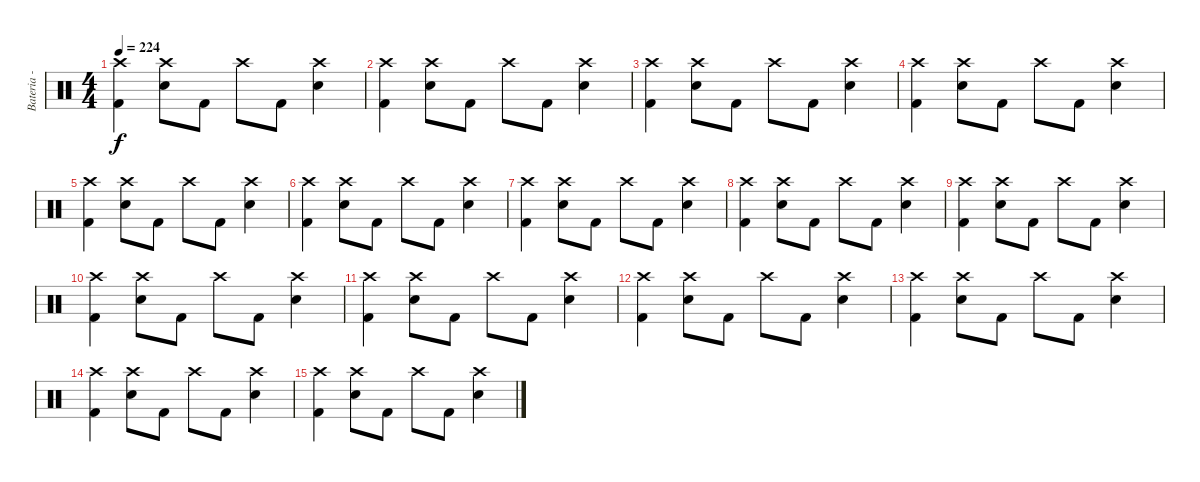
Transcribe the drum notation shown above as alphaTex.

\track ("Bateria - Larzon" "Bateria - ") {instrument percussion}
\staff {score}
\articulation defaults
\ts (4 4)
\tempo 224
\clef neutral
\ks c
("Kick (hit) 2" "Crash high (hit)").4{dy f} ("Electric Snare (hit)" "Crash high (hit)").8 "Kick (hit) 2".8 "Crash high (hit)".8 "Kick (hit) 2".8 ("Electric Snare (hit)" "Crash high (hit)").4 |
("Kick (hit) 2" "Crash high (hit)").4 ("Electric Snare (hit)" "Crash high (hit)").8 "Kick (hit) 2".8 "Crash high (hit)".8 "Kick (hit) 2".8 ("Electric Snare (hit)" "Crash high (hit)").4 |
("Kick (hit) 2" "Crash high (hit)").4 ("Electric Snare (hit)" "Crash high (hit)").8 "Kick (hit) 2".8 "Crash high (hit)".8 "Kick (hit) 2".8 ("Electric Snare (hit)" "Crash high (hit)").4 |
("Kick (hit) 2" "Crash high (hit)").4 ("Electric Snare (hit)" "Crash high (hit)").8 "Kick (hit) 2".8 "Crash high (hit)".8 "Kick (hit) 2".8 ("Electric Snare (hit)" "Crash high (hit)").4 |
("Kick (hit) 2" "Crash high (hit)").4 ("Electric Snare (hit)" "Crash high (hit)").8 "Kick (hit) 2".8 "Crash high (hit)".8 "Kick (hit) 2".8 ("Electric Snare (hit)" "Crash high (hit)").4 |
("Kick (hit) 2" "Crash high (hit)").4 ("Electric Snare (hit)" "Crash high (hit)").8 "Kick (hit) 2".8 "Crash high (hit)".8 "Kick (hit) 2".8 ("Electric Snare (hit)" "Crash high (hit)").4 |
("Kick (hit) 2" "Crash high (hit)").4 ("Electric Snare (hit)" "Crash high (hit)").8 "Kick (hit) 2".8 "Crash high (hit)".8 "Kick (hit) 2".8 ("Electric Snare (hit)" "Crash high (hit)").4 |
("Kick (hit) 2" "Crash high (hit)").4 ("Electric Snare (hit)" "Crash high (hit)").8 "Kick (hit) 2".8 "Crash high (hit)".8 "Kick (hit) 2".8 ("Electric Snare (hit)" "Crash high (hit)").4 |
("Kick (hit) 2" "Crash high (hit)").4 ("Electric Snare (hit)" "Crash high (hit)").8 "Kick (hit) 2".8 "Crash high (hit)".8 "Kick (hit) 2".8 ("Electric Snare (hit)" "Crash high (hit)").4 |
("Kick (hit) 2" "Crash high (hit)").4 ("Electric Snare (hit)" "Crash high (hit)").8 "Kick (hit) 2".8 "Crash high (hit)".8 "Kick (hit) 2".8 ("Electric Snare (hit)" "Crash high (hit)").4 |
("Kick (hit) 2" "Crash high (hit)").4 ("Electric Snare (hit)" "Crash high (hit)").8 "Kick (hit) 2".8 "Crash high (hit)".8 "Kick (hit) 2".8 ("Electric Snare (hit)" "Crash high (hit)").4 |
("Kick (hit) 2" "Crash high (hit)").4 ("Electric Snare (hit)" "Crash high (hit)").8 "Kick (hit) 2".8 "Crash high (hit)".8 "Kick (hit) 2".8 ("Electric Snare (hit)" "Crash high (hit)").4 |
("Kick (hit) 2" "Crash high (hit)").4 ("Electric Snare (hit)" "Crash high (hit)").8 "Kick (hit) 2".8 "Crash high (hit)".8 "Kick (hit) 2".8 ("Electric Snare (hit)" "Crash high (hit)").4 |
("Kick (hit) 2" "Crash high (hit)").4 ("Electric Snare (hit)" "Crash high (hit)").8 "Kick (hit) 2".8 "Crash high (hit)".8 "Kick (hit) 2".8 ("Electric Snare (hit)" "Crash high (hit)").4 |
("Kick (hit) 2" "Crash high (hit)").4 ("Electric Snare (hit)" "Crash high (hit)").8 "Kick (hit) 2".8 "Crash high (hit)".8 "Kick (hit) 2".8 ("Electric Snare (hit)" "Crash high (hit)").4
